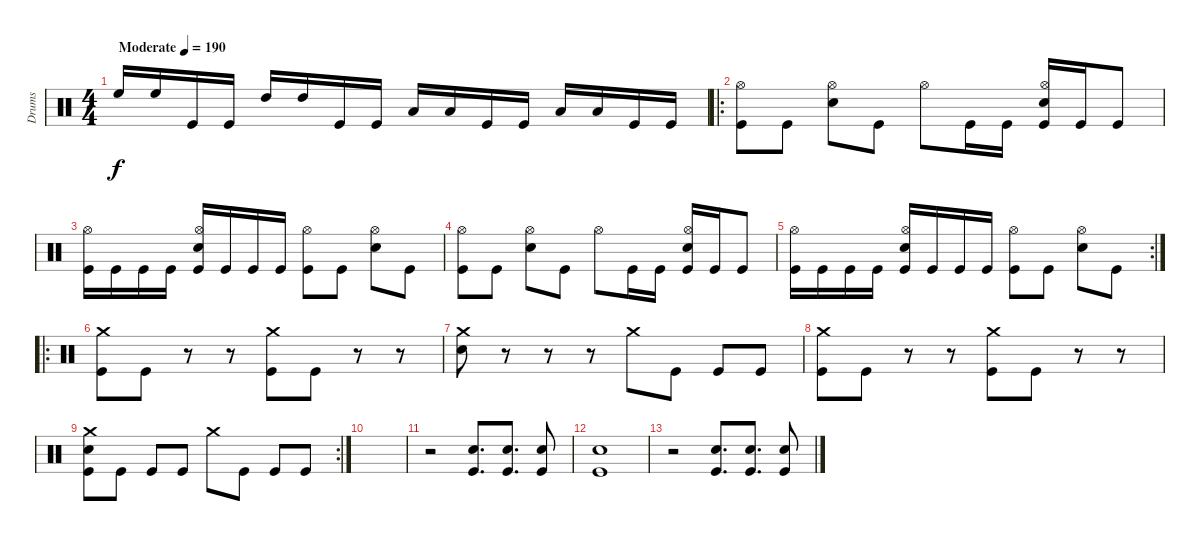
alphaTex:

\track ("Drums" "Drums") {instrument percussion}
\staff {score}
\articulation defaults
\ts (4 4)
\tempo (190 "Moderate")
\clef neutral
\ks c "High Floor Tom (hit)".16{dy f} "High Floor Tom (hit)".16 "Kick (hit)".16 "Kick (hit)".16 "High Tom (hit)".16 "High Tom (hit)".16 "Kick (hit)".16 "Kick (hit)".16 "Low Tom (hit)".16 "Low Tom (hit)".16 "Kick (hit)".16 "Kick (hit)".16 "Low Floor Tom (hit)".16 "Low Floor Tom (hit)".16 "Kick (hit)".16 "Kick (hit)".16
|
\ro
("Hi-Hat (open)" "Kick (hit)").8 "Kick (hit)".8 ("Hi-Hat (open)" "Snare (hit) 2").8 "Kick (hit)".8 "Hi-Hat (open)".8 "Kick (hit)".16 "Kick (hit)".16 ("Hi-Hat (open)" "Snare (hit) 2" "Kick (hit)").16 "Kick (hit)".16 "Kick (hit)".8 |
("Hi-Hat (open)" "Kick (hit)").16 "Kick (hit)".16 "Kick (hit)".16 "Kick (hit)".16 ("Hi-Hat (open)" "Snare (hit) 2" "Kick (hit)").16 "Kick (hit)".16 "Kick (hit)".16 "Kick (hit)".16 ("Hi-Hat (open)" "Kick (hit)").8 "Kick (hit)".8 ("Hi-Hat (open)" "Snare (hit) 2").8 "Kick (hit)".8 |
("Hi-Hat (open)" "Kick (hit)").8 "Kick (hit)".8 ("Hi-Hat (open)" "Snare (hit) 2").8 "Kick (hit)".8 "Hi-Hat (open)".8 "Kick (hit)".16 "Kick (hit)".16 ("Hi-Hat (open)" "Snare (hit) 2" "Kick (hit)").16 "Kick (hit)".16 "Kick (hit)".8 |
\rc 2
("Hi-Hat (open)" "Kick (hit)").16 "Kick (hit)".16 "Kick (hit)".16 "Kick (hit)".16 ("Hi-Hat (open)" "Snare (hit) 2" "Kick (hit)").16 "Kick (hit)".16 "Kick (hit)".16 "Kick (hit)".16 ("Hi-Hat (open)" "Kick (hit)").8 "Kick (hit)".8 ("Hi-Hat (open)" "Snare (hit) 2").8 "Kick (hit)".8 |
\ro
("Crash medium (hit)" "Kick (hit)").8 "Kick (hit)".8 r.8 r.8 ("Crash medium (hit)" "Kick (hit)").8 "Kick (hit)".8 r.8 r.8 |
("Crash medium (hit)" "Snare (hit) 2").8 r.8 r.8 r.8 "Crash medium (hit)".8 "Kick (hit)".8 "Kick (hit)".8 "Kick (hit)".8 |
("Crash medium (hit)" "Kick (hit)").8 "Kick (hit)".8 r.8 r.8 ("Crash medium (hit)" "Kick (hit)").8 "Kick (hit)".8 r.8 r.8 |
\rc 2
("Crash medium (hit)" "Snare (hit) 2" "Kick (hit)").8 "Kick (hit)".8 "Kick (hit)".8 "Kick (hit)".8 "Crash medium (hit)".8 "Kick (hit)".8 "Kick (hit)".8 "Kick (hit)".8 |
|
r.2 ("Snare (hit) 2" "Kick (hit)").8{d} ("Snare (hit) 2" "Kick (hit)").8{d} ("Snare (hit) 2" "Kick (hit)").8 |
("Snare (hit) 2" "Kick (hit)").1 |
r.2 ("Snare (hit) 2" "Kick (hit)").8{d} ("Snare (hit) 2" "Kick (hit)").8{d} ("Snare (hit) 2" "Kick (hit)").8
